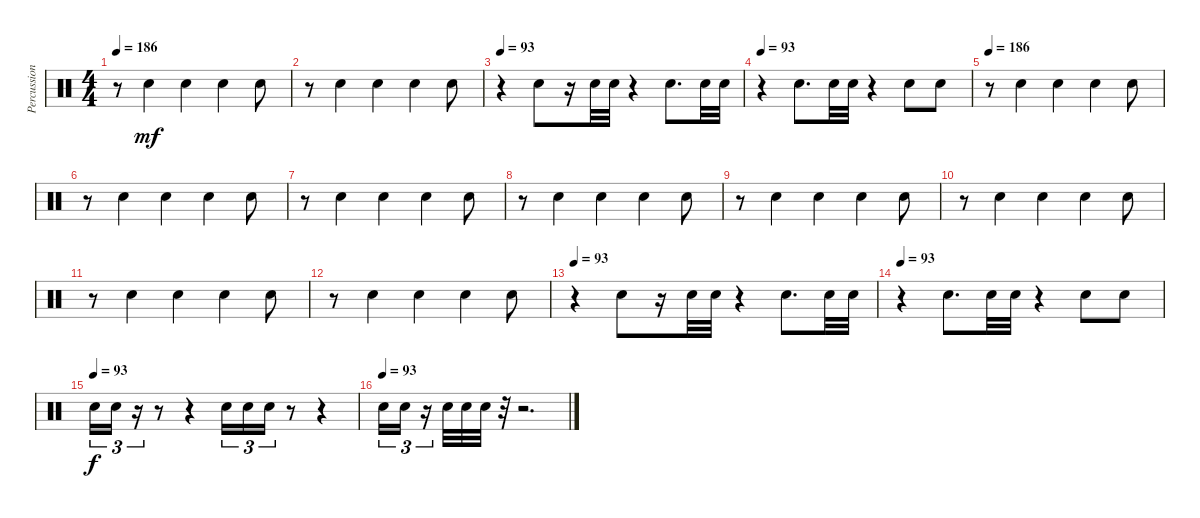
\track ("Percussion" "Percussion") {instrument percussion}
\staff {score}
\articulation defaults
\ts (4 4)
\tempo 186
\clef neutral
\ks c
r.8{dy mf} "Snare (hit) 2".4 "Snare (hit) 2".4 "Snare (hit) 2".4 "Snare (hit) 2".8 |
r.8 "Snare (hit) 2".4 "Snare (hit) 2".4 "Snare (hit) 2".4 "Snare (hit) 2".8 |
\tempo 93
r.4 "Snare (hit) 2".8 r.16 "Snare (hit) 2".32 "Snare (hit) 2".32 r.4 "Snare (hit) 2".8{d} "Snare (hit) 2".32 "Snare (hit) 2".32 |
\tempo 93
r.4 "Snare (hit) 2".8{d} "Snare (hit) 2".32 "Snare (hit) 2".32 r.4 "Snare (hit) 2".8 "Snare (hit) 2".8 |
\tempo 186
r.8 "Snare (hit) 2".4 "Snare (hit) 2".4 "Snare (hit) 2".4 "Snare (hit) 2".8 |
r.8 "Snare (hit) 2".4 "Snare (hit) 2".4 "Snare (hit) 2".4 "Snare (hit) 2".8 |
r.8 "Snare (hit) 2".4 "Snare (hit) 2".4 "Snare (hit) 2".4 "Snare (hit) 2".8 |
r.8 "Snare (hit) 2".4 "Snare (hit) 2".4 "Snare (hit) 2".4 "Snare (hit) 2".8 |
r.8 "Snare (hit) 2".4 "Snare (hit) 2".4 "Snare (hit) 2".4 "Snare (hit) 2".8 |
r.8 "Snare (hit) 2".4 "Snare (hit) 2".4 "Snare (hit) 2".4 "Snare (hit) 2".8 |
r.8 "Snare (hit) 2".4 "Snare (hit) 2".4 "Snare (hit) 2".4 "Snare (hit) 2".8 |
r.8 "Snare (hit) 2".4 "Snare (hit) 2".4 "Snare (hit) 2".4 "Snare (hit) 2".8 |
\tempo 93
r.4 "Snare (hit) 2".8 r.16 "Snare (hit) 2".32 "Snare (hit) 2".32 r.4 "Snare (hit) 2".8{d} "Snare (hit) 2".32 "Snare (hit) 2".32 |
\tempo 93
r.4 "Snare (hit) 2".8{d} "Snare (hit) 2".32 "Snare (hit) 2".32 r.4 "Snare (hit) 2".8 "Snare (hit) 2".8 |
\tempo (93)
"Snare (hit) 2".16{tu (3 2) dy f} "Snare (hit) 2".16{tu (3 2)} r.16{tu (3 2)} r.8 r.4 "Snare (hit) 2".16{tu (3 2)} "Snare (hit) 2".16{tu (3 2)} "Snare (hit) 2".16{tu (3 2)} r.8 r.4 |
\tempo (93)
"Snare (hit) 2".16{tu (3 2)} "Snare (hit) 2".16{tu (3 2)} r.16{tu (3 2)} "Snare (hit) 2".32 "Snare (hit) 2".32 "Snare (hit) 2".32 r.32 r.2{d}
